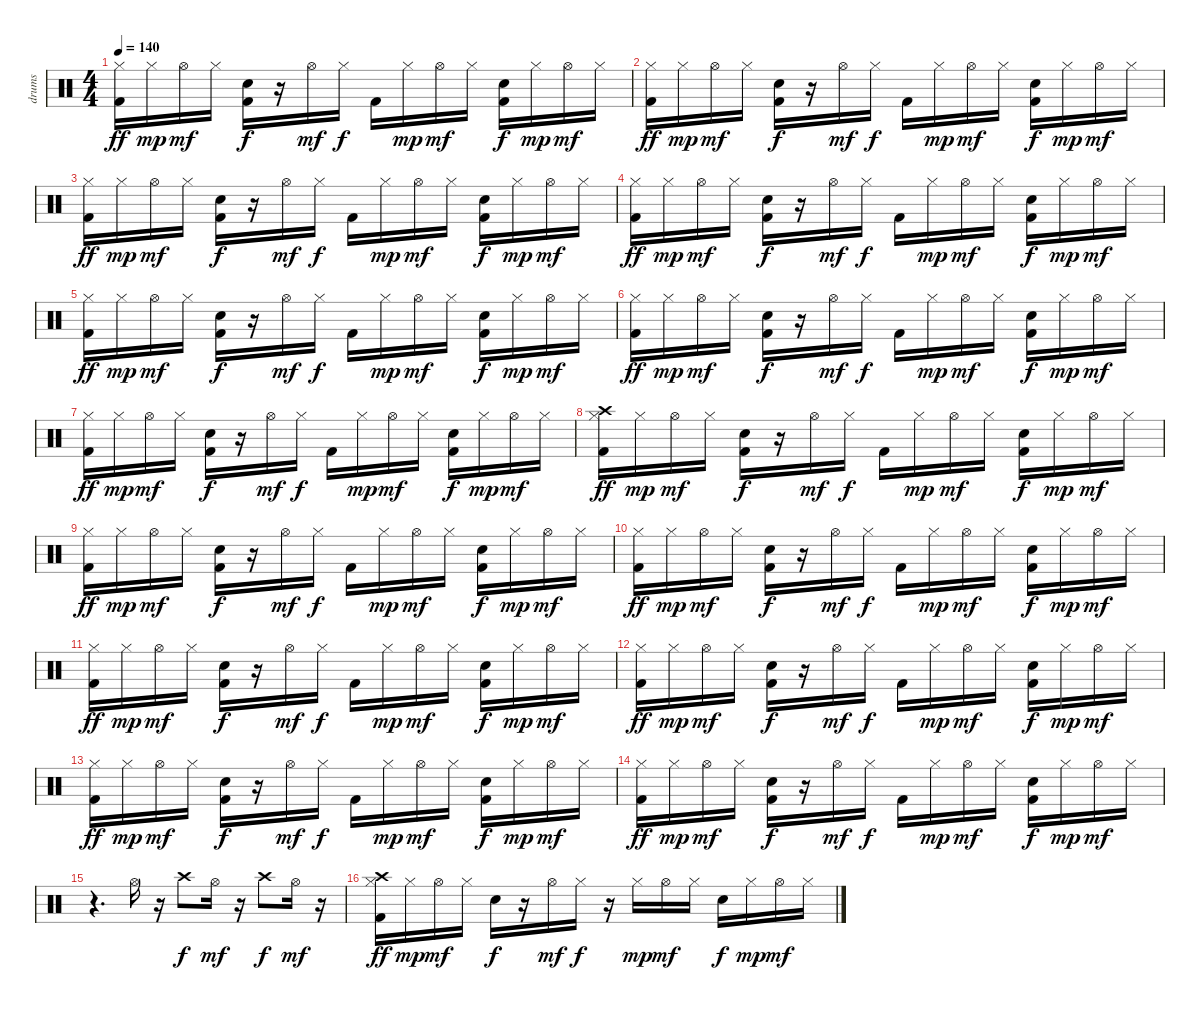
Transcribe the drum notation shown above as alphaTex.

\track ("drums" "drums") {instrument percussion}
\staff {score}
\articulation defaults
\ts (4 4)
\tempo 140
\clef neutral
\ks c
("Kick (hit) 2" "Hi-Hat (closed)").16{dy ff} "Hi-Hat (closed)".16{dy mp} "Hi-Hat (open)".16{dy mf} "Hi-Hat (closed)".16 ("Kick (hit) 2" "Hand Clap (hit)").16{dy f} r.16 "Hi-Hat (open)".16{dy mf} "Hi-Hat (closed)".16{dy f} "Kick (hit) 2".16 "Hi-Hat (closed)".16{dy mp} "Hi-Hat (open)".16{dy mf} "Hi-Hat (closed)".16 ("Kick (hit) 2" "Hand Clap (hit)").16{dy f} "Hi-Hat (closed)".16{dy mp} "Hi-Hat (open)".16{dy mf} "Hi-Hat (closed)".16 |
("Kick (hit) 2" "Hi-Hat (closed)").16{dy ff} "Hi-Hat (closed)".16{dy mp} "Hi-Hat (open)".16{dy mf} "Hi-Hat (closed)".16 ("Kick (hit) 2" "Hand Clap (hit)").16{dy f} r.16 "Hi-Hat (open)".16{dy mf} "Hi-Hat (closed)".16{dy f} "Kick (hit) 2".16 "Hi-Hat (closed)".16{dy mp} "Hi-Hat (open)".16{dy mf} "Hi-Hat (closed)".16 ("Kick (hit) 2" "Hand Clap (hit)").16{dy f} "Hi-Hat (closed)".16{dy mp} "Hi-Hat (open)".16{dy mf} "Hi-Hat (closed)".16 |
("Kick (hit) 2" "Hi-Hat (closed)").16{dy ff} "Hi-Hat (closed)".16{dy mp} "Hi-Hat (open)".16{dy mf} "Hi-Hat (closed)".16 ("Kick (hit) 2" "Hand Clap (hit)").16{dy f} r.16 "Hi-Hat (open)".16{dy mf} "Hi-Hat (closed)".16{dy f} "Kick (hit) 2".16 "Hi-Hat (closed)".16{dy mp} "Hi-Hat (open)".16{dy mf} "Hi-Hat (closed)".16 ("Kick (hit) 2" "Hand Clap (hit)").16{dy f} "Hi-Hat (closed)".16{dy mp} "Hi-Hat (open)".16{dy mf} "Hi-Hat (closed)".16 |
("Kick (hit) 2" "Hi-Hat (closed)").16{dy ff} "Hi-Hat (closed)".16{dy mp} "Hi-Hat (open)".16{dy mf} "Hi-Hat (closed)".16 ("Kick (hit) 2" "Hand Clap (hit)").16{dy f} r.16 "Hi-Hat (open)".16{dy mf} "Hi-Hat (closed)".16{dy f} "Kick (hit) 2".16 "Hi-Hat (closed)".16{dy mp} "Hi-Hat (open)".16{dy mf} "Hi-Hat (closed)".16 ("Kick (hit) 2" "Hand Clap (hit)").16{dy f} "Hi-Hat (closed)".16{dy mp} "Hi-Hat (open)".16{dy mf} "Hi-Hat (closed)".16 |
("Kick (hit) 2" "Hi-Hat (closed)").16{dy ff} "Hi-Hat (closed)".16{dy mp} "Hi-Hat (open)".16{dy mf} "Hi-Hat (closed)".16 ("Kick (hit) 2" "Hand Clap (hit)").16{dy f} r.16 "Hi-Hat (open)".16{dy mf} "Hi-Hat (closed)".16{dy f} "Kick (hit) 2".16 "Hi-Hat (closed)".16{dy mp} "Hi-Hat (open)".16{dy mf} "Hi-Hat (closed)".16 ("Kick (hit) 2" "Hand Clap (hit)").16{dy f} "Hi-Hat (closed)".16{dy mp} "Hi-Hat (open)".16{dy mf} "Hi-Hat (closed)".16 |
("Kick (hit) 2" "Hi-Hat (closed)").16{dy ff} "Hi-Hat (closed)".16{dy mp} "Hi-Hat (open)".16{dy mf} "Hi-Hat (closed)".16 ("Kick (hit) 2" "Hand Clap (hit)").16{dy f} r.16 "Hi-Hat (open)".16{dy mf} "Hi-Hat (closed)".16{dy f} "Kick (hit) 2".16 "Hi-Hat (closed)".16{dy mp} "Hi-Hat (open)".16{dy mf} "Hi-Hat (closed)".16 ("Kick (hit) 2" "Hand Clap (hit)").16{dy f} "Hi-Hat (closed)".16{dy mp} "Hi-Hat (open)".16{dy mf} "Hi-Hat (closed)".16 |
("Kick (hit) 2" "Hi-Hat (closed)").16{dy ff} "Hi-Hat (closed)".16{dy mp} "Hi-Hat (open)".16{dy mf} "Hi-Hat (closed)".16 ("Kick (hit) 2" "Hand Clap (hit)").16{dy f} r.16 "Hi-Hat (open)".16{dy mf} "Hi-Hat (closed)".16{dy f} "Kick (hit) 2".16 "Hi-Hat (closed)".16{dy mp} "Hi-Hat (open)".16{dy mf} "Hi-Hat (closed)".16 ("Kick (hit) 2" "Hand Clap (hit)").16{dy f} "Hi-Hat (closed)".16{dy mp} "Hi-Hat (open)".16{dy mf} "Hi-Hat (closed)".16 |
("Kick (hit) 2" "Crash high (hit)" "Hi-Hat (closed)").16{dy ff} "Hi-Hat (closed)".16{dy mp} "Hi-Hat (open)".16{dy mf} "Hi-Hat (closed)".16 ("Kick (hit) 2" "Hand Clap (hit)").16{dy f} r.16 "Hi-Hat (open)".16{dy mf} "Hi-Hat (closed)".16{dy f} "Kick (hit) 2".16 "Hi-Hat (closed)".16{dy mp} "Hi-Hat (open)".16{dy mf} "Hi-Hat (closed)".16 ("Kick (hit) 2" "Hand Clap (hit)").16{dy f} "Hi-Hat (closed)".16{dy mp} "Hi-Hat (open)".16{dy mf} "Hi-Hat (closed)".16 |
("Kick (hit) 2" "Hi-Hat (closed)").16{dy ff} "Hi-Hat (closed)".16{dy mp} "Hi-Hat (open)".16{dy mf} "Hi-Hat (closed)".16 ("Kick (hit) 2" "Hand Clap (hit)").16{dy f} r.16 "Hi-Hat (open)".16{dy mf} "Hi-Hat (closed)".16{dy f} "Kick (hit) 2".16 "Hi-Hat (closed)".16{dy mp} "Hi-Hat (open)".16{dy mf} "Hi-Hat (closed)".16 ("Kick (hit) 2" "Hand Clap (hit)").16{dy f} "Hi-Hat (closed)".16{dy mp} "Hi-Hat (open)".16{dy mf} "Hi-Hat (closed)".16 |
("Kick (hit) 2" "Hi-Hat (closed)").16{dy ff} "Hi-Hat (closed)".16{dy mp} "Hi-Hat (open)".16{dy mf} "Hi-Hat (closed)".16 ("Kick (hit) 2" "Hand Clap (hit)").16{dy f} r.16 "Hi-Hat (open)".16{dy mf} "Hi-Hat (closed)".16{dy f} "Kick (hit) 2".16 "Hi-Hat (closed)".16{dy mp} "Hi-Hat (open)".16{dy mf} "Hi-Hat (closed)".16 ("Kick (hit) 2" "Hand Clap (hit)").16{dy f} "Hi-Hat (closed)".16{dy mp} "Hi-Hat (open)".16{dy mf} "Hi-Hat (closed)".16 |
("Kick (hit) 2" "Hi-Hat (closed)").16{dy ff} "Hi-Hat (closed)".16{dy mp} "Hi-Hat (open)".16{dy mf} "Hi-Hat (closed)".16 ("Kick (hit) 2" "Hand Clap (hit)").16{dy f} r.16 "Hi-Hat (open)".16{dy mf} "Hi-Hat (closed)".16{dy f} "Kick (hit) 2".16 "Hi-Hat (closed)".16{dy mp} "Hi-Hat (open)".16{dy mf} "Hi-Hat (closed)".16 ("Kick (hit) 2" "Hand Clap (hit)").16{dy f} "Hi-Hat (closed)".16{dy mp} "Hi-Hat (open)".16{dy mf} "Hi-Hat (closed)".16 |
("Kick (hit) 2" "Hi-Hat (closed)").16{dy ff} "Hi-Hat (closed)".16{dy mp} "Hi-Hat (open)".16{dy mf} "Hi-Hat (closed)".16 ("Kick (hit) 2" "Hand Clap (hit)").16{dy f} r.16 "Hi-Hat (open)".16{dy mf} "Hi-Hat (closed)".16{dy f} "Kick (hit) 2".16 "Hi-Hat (closed)".16{dy mp} "Hi-Hat (open)".16{dy mf} "Hi-Hat (closed)".16 ("Kick (hit) 2" "Hand Clap (hit)").16{dy f} "Hi-Hat (closed)".16{dy mp} "Hi-Hat (open)".16{dy mf} "Hi-Hat (closed)".16 |
("Kick (hit) 2" "Hi-Hat (closed)").16{dy ff} "Hi-Hat (closed)".16{dy mp} "Hi-Hat (open)".16{dy mf} "Hi-Hat (closed)".16 ("Kick (hit) 2" "Hand Clap (hit)").16{dy f} r.16 "Hi-Hat (open)".16{dy mf} "Hi-Hat (closed)".16{dy f} "Kick (hit) 2".16 "Hi-Hat (closed)".16{dy mp} "Hi-Hat (open)".16{dy mf} "Hi-Hat (closed)".16 ("Kick (hit) 2" "Hand Clap (hit)").16{dy f} "Hi-Hat (closed)".16{dy mp} "Hi-Hat (open)".16{dy mf} "Hi-Hat (closed)".16 |
("Kick (hit) 2" "Hi-Hat (closed)").16{dy ff} "Hi-Hat (closed)".16{dy mp} "Hi-Hat (open)".16{dy mf} "Hi-Hat (closed)".16 ("Kick (hit) 2" "Hand Clap (hit)").16{dy f} r.16 "Hi-Hat (open)".16{dy mf} "Hi-Hat (closed)".16{dy f} "Kick (hit) 2".16 "Hi-Hat (closed)".16{dy mp} "Hi-Hat (open)".16{dy mf} "Hi-Hat (closed)".16 ("Kick (hit) 2" "Hand Clap (hit)").16{dy f} "Hi-Hat (closed)".16{dy mp} "Hi-Hat (open)".16{dy mf} "Hi-Hat (closed)".16 |
r.4{d} "Hi-Hat (open)".16 r.16 "Crash high (hit)".8{dy f} "Hi-Hat (open)".16{dy mf} r.16 "Crash high (hit)".8{dy f} "Hi-Hat (open)".16{dy mf} r.16 |
("Kick (hit) 2" "Crash high (hit)" "Hi-Hat (closed)").16{dy ff} "Hi-Hat (closed)".16{dy mp} "Hi-Hat (open)".16{dy mf} "Hi-Hat (closed)".16 "Hand Clap (hit)".16{dy f} r.16 "Hi-Hat (open)".16{dy mf} "Hi-Hat (closed)".16{dy f} r.16 "Hi-Hat (closed)".16{dy mp} "Hi-Hat (open)".16{dy mf} "Hi-Hat (closed)".16 "Hand Clap (hit)".16{dy f} "Hi-Hat (closed)".16{dy mp} "Hi-Hat (open)".16{dy mf} "Hi-Hat (closed)".16
